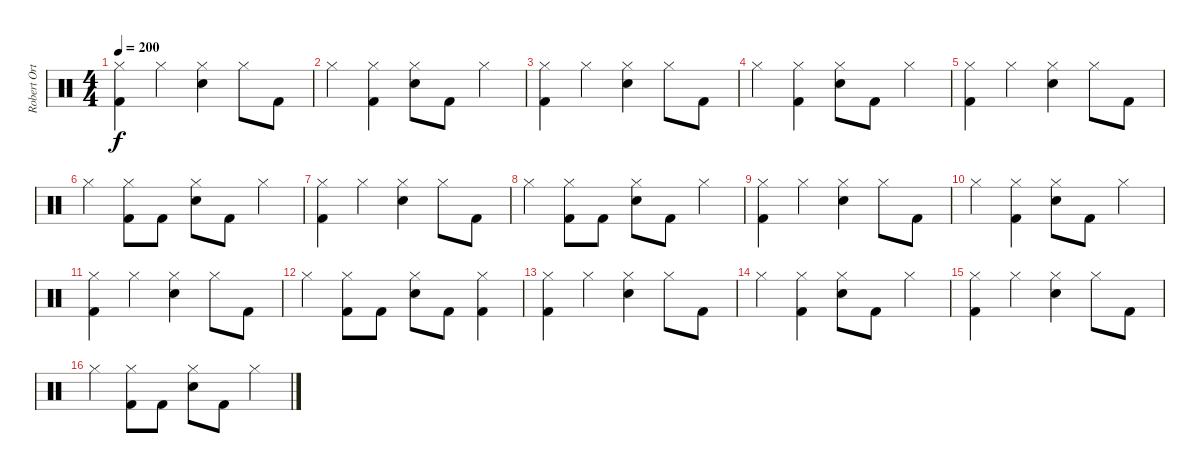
\track ("Robert Ortiz - Drums" "Robert Ort") {instrument percussion}
\staff {score}
\articulation defaults
\ts (4 4)
\tempo 200
\clef neutral
\ks c
("Hi-Hat (closed)" "Kick (hit) 2").4{dy f} "Hi-Hat (closed)".4 ("Hi-Hat (closed)" "Electric Snare (hit)").4 "Hi-Hat (closed)".8 "Kick (hit) 2".8 |
"Hi-Hat (closed)".4 ("Hi-Hat (closed)" "Kick (hit) 2").4 ("Hi-Hat (closed)" "Electric Snare (hit)").8 "Kick (hit) 2".8 "Hi-Hat (closed)".4 |
("Hi-Hat (closed)" "Kick (hit) 2").4 "Hi-Hat (closed)".4 ("Hi-Hat (closed)" "Electric Snare (hit)").4 "Hi-Hat (closed)".8 "Kick (hit) 2".8 |
"Hi-Hat (closed)".4 ("Hi-Hat (closed)" "Kick (hit) 2").4 ("Hi-Hat (closed)" "Electric Snare (hit)").8 "Kick (hit) 2".8 "Hi-Hat (closed)".4 |
("Hi-Hat (closed)" "Kick (hit) 2").4 "Hi-Hat (closed)".4 ("Hi-Hat (closed)" "Electric Snare (hit)").4 "Hi-Hat (closed)".8 "Kick (hit) 2".8 |
"Hi-Hat (closed)".4 ("Hi-Hat (closed)" "Kick (hit) 2").8 "Kick (hit) 2".8 ("Hi-Hat (closed)" "Electric Snare (hit)").8 "Kick (hit) 2".8 "Hi-Hat (closed)".4 |
("Hi-Hat (closed)" "Kick (hit) 2").4 "Hi-Hat (closed)".4 ("Hi-Hat (closed)" "Electric Snare (hit)").4 "Hi-Hat (closed)".8 "Kick (hit) 2".8 |
"Hi-Hat (closed)".4 ("Hi-Hat (closed)" "Kick (hit) 2").8 "Kick (hit) 2".8 ("Hi-Hat (closed)" "Electric Snare (hit)").8 "Kick (hit) 2".8 "Hi-Hat (closed)".4 |
("Hi-Hat (closed)" "Kick (hit) 2").4 "Hi-Hat (closed)".4 ("Hi-Hat (closed)" "Electric Snare (hit)").4 "Hi-Hat (closed)".8 "Kick (hit) 2".8 |
"Hi-Hat (closed)".4 ("Hi-Hat (closed)" "Kick (hit) 2").4 ("Hi-Hat (closed)" "Electric Snare (hit)").8 "Kick (hit) 2".8 "Hi-Hat (closed)".4 |
("Hi-Hat (closed)" "Kick (hit) 2").4 "Hi-Hat (closed)".4 ("Hi-Hat (closed)" "Electric Snare (hit)").4 "Hi-Hat (closed)".8 "Kick (hit) 2".8 |
"Hi-Hat (closed)".4 ("Hi-Hat (closed)" "Kick (hit) 2").8 "Kick (hit) 2".8 ("Hi-Hat (closed)" "Electric Snare (hit)").8 "Kick (hit) 2".8 ("Hi-Hat (closed)" "Kick (hit) 2").4 |
("Hi-Hat (closed)" "Kick (hit) 2").4 "Hi-Hat (closed)".4 ("Hi-Hat (closed)" "Electric Snare (hit)").4 "Hi-Hat (closed)".8 "Kick (hit) 2".8 |
"Hi-Hat (closed)".4 ("Hi-Hat (closed)" "Kick (hit) 2").4 ("Hi-Hat (closed)" "Electric Snare (hit)").8 "Kick (hit) 2".8 "Hi-Hat (closed)".4 |
("Hi-Hat (closed)" "Kick (hit) 2").4 "Hi-Hat (closed)".4 ("Hi-Hat (closed)" "Electric Snare (hit)").4 "Hi-Hat (closed)".8 "Kick (hit) 2".8 |
"Hi-Hat (closed)".4 ("Hi-Hat (closed)" "Kick (hit) 2").8 "Kick (hit) 2".8 ("Hi-Hat (closed)" "Electric Snare (hit)").8 "Kick (hit) 2".8 "Hi-Hat (closed)".4
